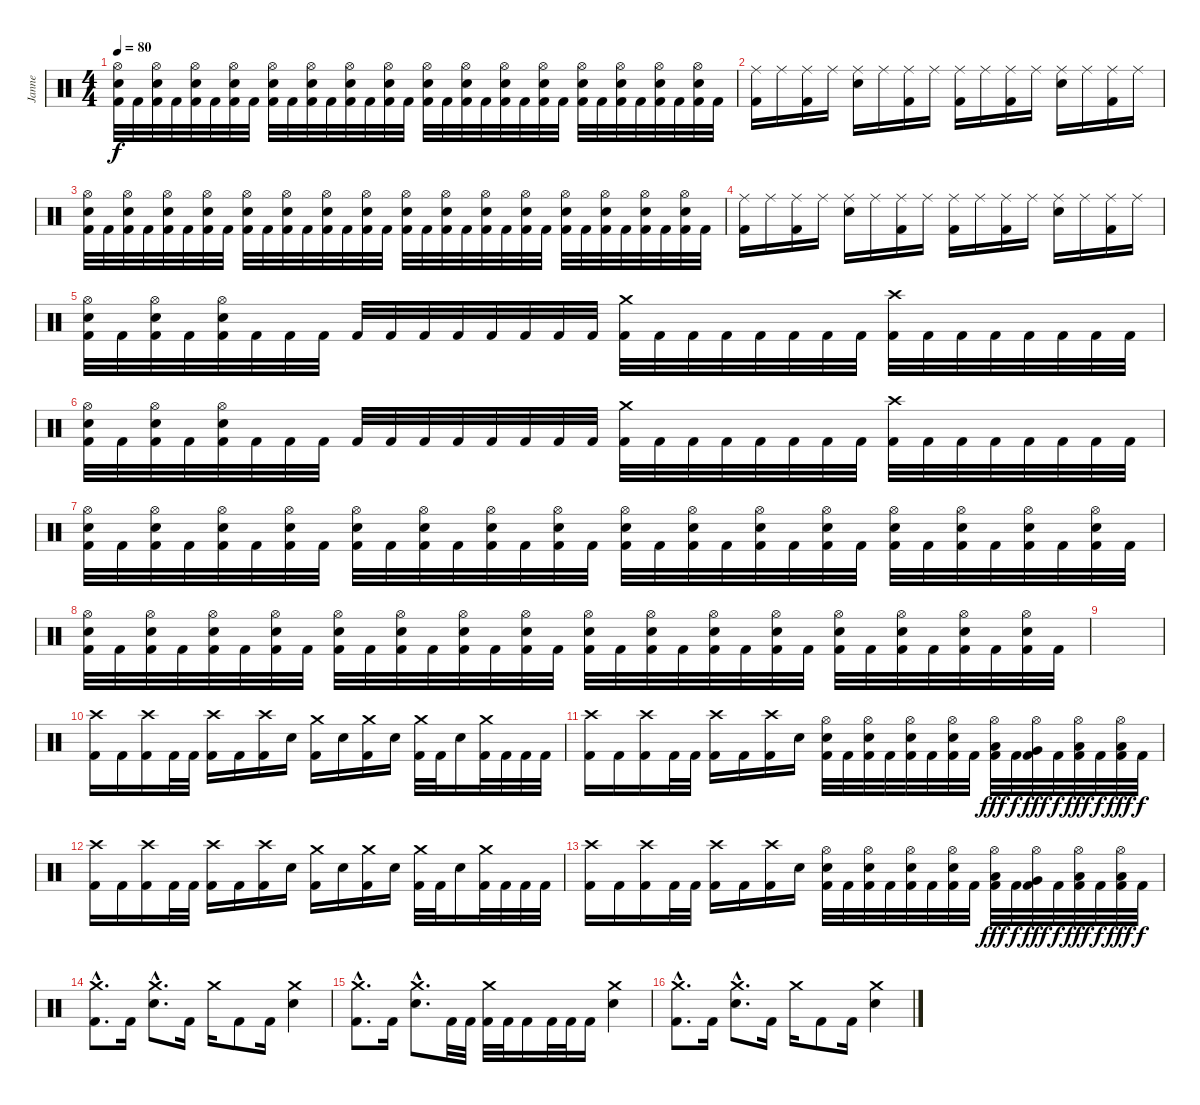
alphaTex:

\track ("Janne" "Janne") {instrument percussion}
\staff {score}
\articulation defaults
\ts (4 4)
\tempo 80
\clef neutral
\ks c
("Hi-Hat (open)" "Electric Snare (hit)" "Kick (hit) 2").32{dy f} "Kick (hit) 2".32 ("Hi-Hat (open)" "Electric Snare (hit)" "Kick (hit) 2").32 "Kick (hit) 2".32 ("Hi-Hat (open)" "Electric Snare (hit)" "Kick (hit) 2").32 "Kick (hit) 2".32 ("Hi-Hat (open)" "Electric Snare (hit)" "Kick (hit) 2").32 "Kick (hit) 2".32 ("Hi-Hat (open)" "Electric Snare (hit)" "Kick (hit) 2").32 "Kick (hit) 2".32 ("Hi-Hat (open)" "Electric Snare (hit)" "Kick (hit) 2").32 "Kick (hit) 2".32 ("Hi-Hat (open)" "Electric Snare (hit)" "Kick (hit) 2").32 "Kick (hit) 2".32 ("Hi-Hat (open)" "Electric Snare (hit)" "Kick (hit) 2").32 "Kick (hit) 2".32 ("Hi-Hat (open)" "Electric Snare (hit)" "Kick (hit) 2").32 "Kick (hit) 2".32 ("Hi-Hat (open)" "Electric Snare (hit)" "Kick (hit) 2").32 "Kick (hit) 2".32 ("Hi-Hat (open)" "Electric Snare (hit)" "Kick (hit) 2").32 "Kick (hit) 2".32 ("Hi-Hat (open)" "Electric Snare (hit)" "Kick (hit) 2").32 "Kick (hit) 2".32 ("Hi-Hat (open)" "Electric Snare (hit)" "Kick (hit) 2").32 "Kick (hit) 2".32 ("Hi-Hat (open)" "Electric Snare (hit)" "Kick (hit) 2").32 "Kick (hit) 2".32 ("Hi-Hat (open)" "Electric Snare (hit)" "Kick (hit) 2").32 "Kick (hit) 2".32 ("Hi-Hat (open)" "Electric Snare (hit)" "Kick (hit) 2").32 "Kick (hit) 2".32 |
("Ride (middle)" "Kick (hit) 2").16 "Ride (middle)".16 ("Ride (middle)" "Kick (hit) 2").16 "Ride (middle)".16 ("Ride (middle)" "Electric Snare (hit)").16 "Ride (middle)".16 ("Ride (middle)" "Kick (hit) 2").16 "Ride (middle)".16 ("Ride (middle)" "Kick (hit) 2").16 "Ride (middle)".16 ("Ride (middle)" "Kick (hit) 2").16 "Ride (middle)".16 ("Ride (middle)" "Electric Snare (hit)").16 "Ride (middle)".16 ("Ride (middle)" "Kick (hit) 2").16 "Ride (middle)".16 |
("Hi-Hat (open)" "Electric Snare (hit)" "Kick (hit) 2").32 "Kick (hit) 2".32 ("Hi-Hat (open)" "Electric Snare (hit)" "Kick (hit) 2").32 "Kick (hit) 2".32 ("Hi-Hat (open)" "Electric Snare (hit)" "Kick (hit) 2").32 "Kick (hit) 2".32 ("Hi-Hat (open)" "Electric Snare (hit)" "Kick (hit) 2").32 "Kick (hit) 2".32 ("Hi-Hat (open)" "Electric Snare (hit)" "Kick (hit) 2").32 "Kick (hit) 2".32 ("Hi-Hat (open)" "Electric Snare (hit)" "Kick (hit) 2").32 "Kick (hit) 2".32 ("Hi-Hat (open)" "Electric Snare (hit)" "Kick (hit) 2").32 "Kick (hit) 2".32 ("Hi-Hat (open)" "Electric Snare (hit)" "Kick (hit) 2").32 "Kick (hit) 2".32 ("Hi-Hat (open)" "Electric Snare (hit)" "Kick (hit) 2").32 "Kick (hit) 2".32 ("Hi-Hat (open)" "Electric Snare (hit)" "Kick (hit) 2").32 "Kick (hit) 2".32 ("Hi-Hat (open)" "Electric Snare (hit)" "Kick (hit) 2").32 "Kick (hit) 2".32 ("Hi-Hat (open)" "Electric Snare (hit)" "Kick (hit) 2").32 "Kick (hit) 2".32 ("Hi-Hat (open)" "Electric Snare (hit)" "Kick (hit) 2").32 "Kick (hit) 2".32 ("Hi-Hat (open)" "Electric Snare (hit)" "Kick (hit) 2").32 "Kick (hit) 2".32 ("Hi-Hat (open)" "Electric Snare (hit)" "Kick (hit) 2").32 "Kick (hit) 2".32 ("Hi-Hat (open)" "Electric Snare (hit)" "Kick (hit) 2").32 "Kick (hit) 2".32 |
("Ride (middle)" "Kick (hit) 2").16 "Ride (middle)".16 ("Ride (middle)" "Kick (hit) 2").16 "Ride (middle)".16 ("Ride (middle)" "Electric Snare (hit)").16 "Ride (middle)".16 ("Ride (middle)" "Kick (hit) 2").16 "Ride (middle)".16 ("Ride (middle)" "Kick (hit) 2").16 "Ride (middle)".16 ("Ride (middle)" "Kick (hit) 2").16 "Ride (middle)".16 ("Ride (middle)" "Electric Snare (hit)").16 "Ride (middle)".16 ("Ride (middle)" "Kick (hit) 2").16 "Ride (middle)".16 |
("Hi-Hat (open)" "Electric Snare (hit)" "Kick (hit) 2").32 "Kick (hit) 2".32 ("Hi-Hat (open)" "Electric Snare (hit)" "Kick (hit) 2").32 "Kick (hit) 2".32 ("Hi-Hat (open)" "Electric Snare (hit)" "Kick (hit) 2").32 "Kick (hit) 2".32 "Kick (hit) 2".32 "Kick (hit) 2".32 "Kick (hit) 2".32 "Kick (hit) 2".32 "Kick (hit) 2".32 "Kick (hit) 2".32 "Kick (hit) 2".32 "Kick (hit) 2".32 "Kick (hit) 2".32 "Kick (hit) 2".32 ("Crash medium (hit)" "Kick (hit) 2").32 "Kick (hit) 2".32 "Kick (hit) 2".32 "Kick (hit) 2".32 "Kick (hit) 2".32 "Kick (hit) 2".32 "Kick (hit) 2".32 "Kick (hit) 2".32 ("Crash high (hit)" "Kick (hit) 2").32 "Kick (hit) 2".32 "Kick (hit) 2".32 "Kick (hit) 2".32 "Kick (hit) 2".32 "Kick (hit) 2".32 "Kick (hit) 2".32 "Kick (hit) 2".32 |
("Hi-Hat (open)" "Electric Snare (hit)" "Kick (hit) 2").32 "Kick (hit) 2".32 ("Hi-Hat (open)" "Electric Snare (hit)" "Kick (hit) 2").32 "Kick (hit) 2".32 ("Hi-Hat (open)" "Electric Snare (hit)" "Kick (hit) 2").32 "Kick (hit) 2".32 "Kick (hit) 2".32 "Kick (hit) 2".32 "Kick (hit) 2".32 "Kick (hit) 2".32 "Kick (hit) 2".32 "Kick (hit) 2".32 "Kick (hit) 2".32 "Kick (hit) 2".32 "Kick (hit) 2".32 "Kick (hit) 2".32 ("Crash medium (hit)" "Kick (hit) 2").32 "Kick (hit) 2".32 "Kick (hit) 2".32 "Kick (hit) 2".32 "Kick (hit) 2".32 "Kick (hit) 2".32 "Kick (hit) 2".32 "Kick (hit) 2".32 ("Crash high (hit)" "Kick (hit) 2").32 "Kick (hit) 2".32 "Kick (hit) 2".32 "Kick (hit) 2".32 "Kick (hit) 2".32 "Kick (hit) 2".32 "Kick (hit) 2".32 "Kick (hit) 2".32 |
("Hi-Hat (open)" "Electric Snare (hit)" "Kick (hit) 2").32 "Kick (hit) 2".32 ("Hi-Hat (open)" "Electric Snare (hit)" "Kick (hit) 2").32 "Kick (hit) 2".32 ("Hi-Hat (open)" "Electric Snare (hit)" "Kick (hit) 2").32 "Kick (hit) 2".32 ("Hi-Hat (open)" "Electric Snare (hit)" "Kick (hit) 2").32 "Kick (hit) 2".32 ("Hi-Hat (open)" "Electric Snare (hit)" "Kick (hit) 2").32 "Kick (hit) 2".32 ("Hi-Hat (open)" "Electric Snare (hit)" "Kick (hit) 2").32 "Kick (hit) 2".32 ("Hi-Hat (open)" "Electric Snare (hit)" "Kick (hit) 2").32 "Kick (hit) 2".32 ("Hi-Hat (open)" "Electric Snare (hit)" "Kick (hit) 2").32 "Kick (hit) 2".32 ("Hi-Hat (open)" "Electric Snare (hit)" "Kick (hit) 2").32 "Kick (hit) 2".32 ("Hi-Hat (open)" "Electric Snare (hit)" "Kick (hit) 2").32 "Kick (hit) 2".32 ("Hi-Hat (open)" "Electric Snare (hit)" "Kick (hit) 2").32 "Kick (hit) 2".32 ("Hi-Hat (open)" "Electric Snare (hit)" "Kick (hit) 2").32 "Kick (hit) 2".32 ("Hi-Hat (open)" "Electric Snare (hit)" "Kick (hit) 2").32 "Kick (hit) 2".32 ("Hi-Hat (open)" "Electric Snare (hit)" "Kick (hit) 2").32 "Kick (hit) 2".32 ("Hi-Hat (open)" "Electric Snare (hit)" "Kick (hit) 2").32 "Kick (hit) 2".32 ("Hi-Hat (open)" "Electric Snare (hit)" "Kick (hit) 2").32 "Kick (hit) 2".32 |
("Hi-Hat (open)" "Electric Snare (hit)" "Kick (hit) 2").32 "Kick (hit) 2".32 ("Hi-Hat (open)" "Electric Snare (hit)" "Kick (hit) 2").32 "Kick (hit) 2".32 ("Hi-Hat (open)" "Electric Snare (hit)" "Kick (hit) 2").32 "Kick (hit) 2".32 ("Hi-Hat (open)" "Electric Snare (hit)" "Kick (hit) 2").32 "Kick (hit) 2".32 ("Hi-Hat (open)" "Electric Snare (hit)" "Kick (hit) 2").32 "Kick (hit) 2".32 ("Hi-Hat (open)" "Electric Snare (hit)" "Kick (hit) 2").32 "Kick (hit) 2".32 ("Hi-Hat (open)" "Electric Snare (hit)" "Kick (hit) 2").32 "Kick (hit) 2".32 ("Hi-Hat (open)" "Electric Snare (hit)" "Kick (hit) 2").32 "Kick (hit) 2".32 ("Hi-Hat (open)" "Electric Snare (hit)" "Kick (hit) 2").32 "Kick (hit) 2".32 ("Hi-Hat (open)" "Electric Snare (hit)" "Kick (hit) 2").32 "Kick (hit) 2".32 ("Hi-Hat (open)" "Electric Snare (hit)" "Kick (hit) 2").32 "Kick (hit) 2".32 ("Hi-Hat (open)" "Electric Snare (hit)" "Kick (hit) 2").32 "Kick (hit) 2".32 ("Hi-Hat (open)" "Electric Snare (hit)" "Kick (hit) 2").32 "Kick (hit) 2".32 ("Hi-Hat (open)" "Electric Snare (hit)" "Kick (hit) 2").32 "Kick (hit) 2".32 ("Hi-Hat (open)" "Electric Snare (hit)" "Kick (hit) 2").32 "Kick (hit) 2".32 ("Hi-Hat (open)" "Electric Snare (hit)" "Kick (hit) 2").32 "Kick (hit) 2".32 |
|
("Crash high (hit)" "Kick (hit) 2").16 "Kick (hit) 2".16 ("Crash high (hit)" "Kick (hit) 2").16 "Kick (hit) 2".32 "Kick (hit) 2".32 ("Crash high (hit)" "Kick (hit) 2").16 "Kick (hit) 2".16 ("Crash high (hit)" "Kick (hit) 2").16 "Electric Snare (hit)".16 ("Crash medium (hit)" "Kick (hit) 2").16 "Electric Snare (hit)".16 ("Crash medium (hit)" "Kick (hit) 2").16 "Electric Snare (hit)".16 ("Crash medium (hit)" "Kick (hit) 2").32 "Kick (hit) 2".32 "Electric Snare (hit)".16 ("Crash medium (hit)" "Kick (hit) 2").32 "Kick (hit) 2".32 "Kick (hit) 2".32 "Kick (hit) 2".32 |
("Crash high (hit)" "Kick (hit) 2").16 "Kick (hit) 2".16 ("Crash high (hit)" "Kick (hit) 2").16 "Kick (hit) 2".32 "Kick (hit) 2".32 ("Crash high (hit)" "Kick (hit) 2").16 "Kick (hit) 2".16 ("Crash high (hit)" "Kick (hit) 2").16 "Electric Snare (hit)".16 ("Hi-Hat (open)" "Electric Snare (hit)" "Kick (hit) 2").32 "Kick (hit) 2".32 ("Hi-Hat (open)" "Electric Snare (hit)" "Kick (hit) 2").32 "Kick (hit) 2".32 ("Hi-Hat (open)" "Electric Snare (hit)" "Kick (hit) 2").32 "Kick (hit) 2".32 ("Hi-Hat (open)" "Electric Snare (hit)" "Kick (hit) 2").32 "Kick (hit) 2".32 ("Hi-Hat (open)" "Low Tom (hit)" "Kick (hit) 2").32{dy fff} "Kick (hit) 2".32{dy f} ("Hi-Hat (open)" "Very Low Tom (hit)" "Kick (hit) 2").32{dy fff} "Kick (hit) 2".32{dy f} ("Hi-Hat (open)" "Low Floor Tom (hit)" "Kick (hit) 2").32{dy fff} "Kick (hit) 2".32{dy f} ("Hi-Hat (open)" "Low Floor Tom (hit)" "Kick (hit) 2").32{dy fff} "Kick (hit) 2".32{dy f} |
("Crash high (hit)" "Kick (hit) 2").16 "Kick (hit) 2".16 ("Crash high (hit)" "Kick (hit) 2").16 "Kick (hit) 2".32 "Kick (hit) 2".32 ("Crash high (hit)" "Kick (hit) 2").16 "Kick (hit) 2".16 ("Crash high (hit)" "Kick (hit) 2").16 "Electric Snare (hit)".16 ("Crash medium (hit)" "Kick (hit) 2").16 "Electric Snare (hit)".16 ("Crash medium (hit)" "Kick (hit) 2").16 "Electric Snare (hit)".16 ("Crash medium (hit)" "Kick (hit) 2").32 "Kick (hit) 2".32 "Electric Snare (hit)".16 ("Crash medium (hit)" "Kick (hit) 2").32 "Kick (hit) 2".32 "Kick (hit) 2".32 "Kick (hit) 2".32 |
("Crash high (hit)" "Kick (hit) 2").16 "Kick (hit) 2".16 ("Crash high (hit)" "Kick (hit) 2").16 "Kick (hit) 2".32 "Kick (hit) 2".32 ("Crash high (hit)" "Kick (hit) 2").16 "Kick (hit) 2".16 ("Crash high (hit)" "Kick (hit) 2").16 "Electric Snare (hit)".16 ("Hi-Hat (open)" "Electric Snare (hit)" "Kick (hit) 2").32 "Kick (hit) 2".32 ("Hi-Hat (open)" "Electric Snare (hit)" "Kick (hit) 2").32 "Kick (hit) 2".32 ("Hi-Hat (open)" "Electric Snare (hit)" "Kick (hit) 2").32 "Kick (hit) 2".32 ("Hi-Hat (open)" "Electric Snare (hit)" "Kick (hit) 2").32 "Kick (hit) 2".32 ("Hi-Hat (open)" "Low Tom (hit)" "Kick (hit) 2").32{dy fff} "Kick (hit) 2".32{dy f} ("Hi-Hat (open)" "Very Low Tom (hit)" "Kick (hit) 2").32{dy fff} "Kick (hit) 2".32{dy f} ("Hi-Hat (open)" "Low Floor Tom (hit)" "Kick (hit) 2").32{dy fff} "Kick (hit) 2".32{dy f} ("Hi-Hat (open)" "Low Floor Tom (hit)" "Kick (hit) 2").32{dy fff} "Kick (hit) 2".32{dy f} |
("Crash medium (hit)"{hac} "Kick (hit) 2"{hac}).8{d} "Kick (hit) 2".16 ("Crash medium (hit)"{hac} "Electric Snare (hit)"{hac}).8{d} "Kick (hit) 2".16 "Crash medium (hit)".16 "Kick (hit) 2".8 "Kick (hit) 2".16 ("Crash medium (hit)" "Electric Snare (hit)").4 |
("Crash medium (hit)"{hac} "Kick (hit) 2"{hac}).8{d} "Kick (hit) 2".16 ("Crash medium (hit)"{hac} "Electric Snare (hit)"{hac}).8{d} "Kick (hit) 2".32 "Kick (hit) 2".32 ("Crash medium (hit)" "Kick (hit) 2").32 "Kick (hit) 2".32 "Kick (hit) 2".16 "Kick (hit) 2".32 "Kick (hit) 2".32 "Kick (hit) 2".16 ("Crash medium (hit)" "Electric Snare (hit)").4 |
("Crash medium (hit)"{hac} "Kick (hit) 2"{hac}).8{d} "Kick (hit) 2".16 ("Crash medium (hit)"{hac} "Electric Snare (hit)"{hac}).8{d} "Kick (hit) 2".16 "Crash medium (hit)".16 "Kick (hit) 2".8 "Kick (hit) 2".16 ("Crash medium (hit)" "Electric Snare (hit)").4
